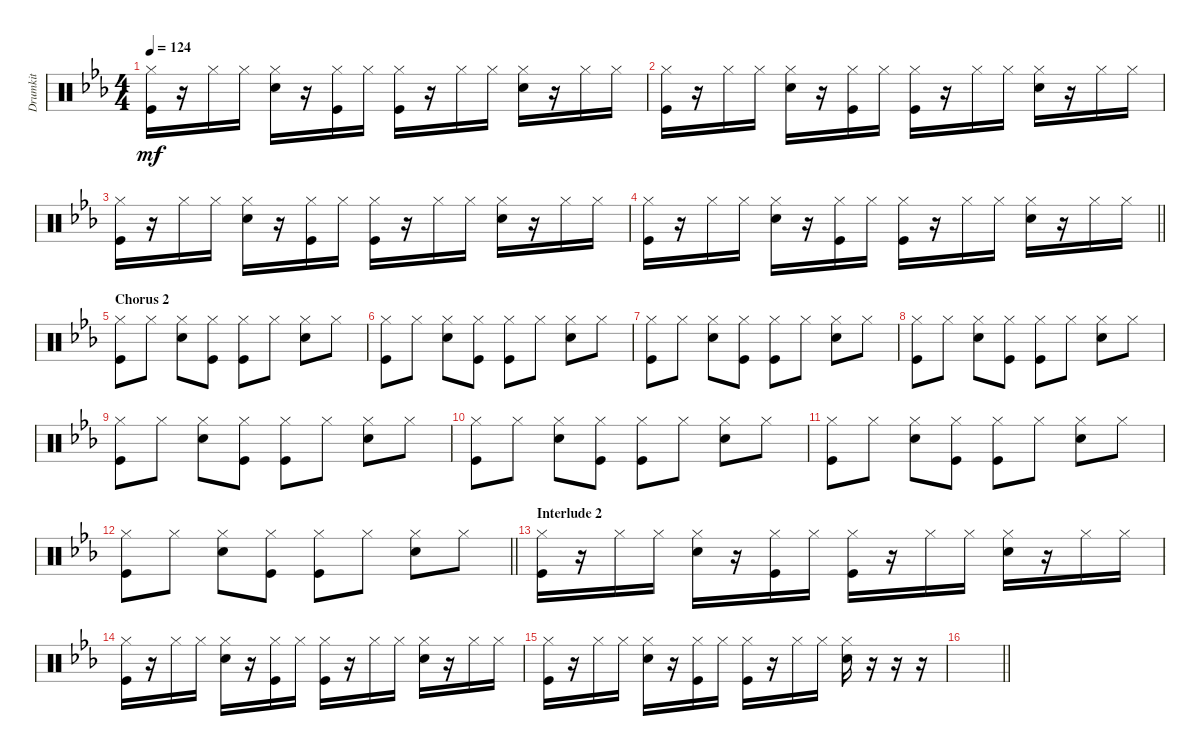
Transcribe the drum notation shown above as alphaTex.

\track ("Drumkit" "Drumkit") {instrument percussion}
\staff {score}
\articulation defaults
\ts (4 4)
\tempo 124
\clef neutral
\ks eb
("Hi-Hat (closed)" "Kick (hit)").16{dy mf} r.16 "Hi-Hat (closed)".16 "Hi-Hat (closed)".16 ("Hi-Hat (closed)" "Snare (hit) 2").16 r.16 ("Hi-Hat (closed)" "Kick (hit)").16 "Hi-Hat (closed)".16 ("Hi-Hat (closed)" "Kick (hit)").16 r.16 "Hi-Hat (closed)".16 "Hi-Hat (closed)".16 ("Hi-Hat (closed)" "Snare (hit) 2").16 r.16 "Hi-Hat (closed)".16 "Hi-Hat (closed)".16 |
("Hi-Hat (closed)" "Kick (hit)").16 r.16 "Hi-Hat (closed)".16 "Hi-Hat (closed)".16 ("Hi-Hat (closed)" "Snare (hit) 2").16 r.16 ("Hi-Hat (closed)" "Kick (hit)").16 "Hi-Hat (closed)".16 ("Hi-Hat (closed)" "Kick (hit)").16 r.16 "Hi-Hat (closed)".16 "Hi-Hat (closed)".16 ("Hi-Hat (closed)" "Snare (hit) 2").16 r.16 "Hi-Hat (closed)".16 "Hi-Hat (closed)".16 |
("Hi-Hat (closed)" "Kick (hit)").16 r.16 "Hi-Hat (closed)".16 "Hi-Hat (closed)".16 ("Hi-Hat (closed)" "Snare (hit) 2").16 r.16 ("Hi-Hat (closed)" "Kick (hit)").16 "Hi-Hat (closed)".16 ("Hi-Hat (closed)" "Kick (hit)").16 r.16 "Hi-Hat (closed)".16 "Hi-Hat (closed)".16 ("Hi-Hat (closed)" "Snare (hit) 2").16 r.16 "Hi-Hat (closed)".16 "Hi-Hat (closed)".16 |
\barLineRight lightlight
("Hi-Hat (closed)" "Kick (hit)").16 r.16 "Hi-Hat (closed)".16 "Hi-Hat (closed)".16 ("Hi-Hat (closed)" "Snare (hit) 2").16 r.16 ("Hi-Hat (closed)" "Kick (hit)").16 "Hi-Hat (closed)".16 ("Hi-Hat (closed)" "Kick (hit)").16 r.16 "Hi-Hat (closed)".16 "Hi-Hat (closed)".16 ("Hi-Hat (closed)" "Snare (hit) 2").16 r.16 "Hi-Hat (closed)".16 "Hi-Hat (closed)".16 |
\section ("" "Chorus 2")
("Hi-Hat (closed)" "Kick (hit)").8 "Hi-Hat (closed)".8 ("Hi-Hat (closed)" "Snare (hit) 2").8 ("Hi-Hat (closed)" "Kick (hit)").8 ("Hi-Hat (closed)" "Kick (hit)").8 "Hi-Hat (closed)".8 ("Hi-Hat (closed)" "Snare (hit) 2").8 "Hi-Hat (closed)".8 |
("Hi-Hat (closed)" "Kick (hit)").8 "Hi-Hat (closed)".8 ("Hi-Hat (closed)" "Snare (hit) 2").8 ("Hi-Hat (closed)" "Kick (hit)").8 ("Hi-Hat (closed)" "Kick (hit)").8 "Hi-Hat (closed)".8 ("Hi-Hat (closed)" "Snare (hit) 2").8 "Hi-Hat (closed)".8 |
("Hi-Hat (closed)" "Kick (hit)").8 "Hi-Hat (closed)".8 ("Hi-Hat (closed)" "Snare (hit) 2").8 ("Hi-Hat (closed)" "Kick (hit)").8 ("Hi-Hat (closed)" "Kick (hit)").8 "Hi-Hat (closed)".8 ("Hi-Hat (closed)" "Snare (hit) 2").8 "Hi-Hat (closed)".8 |
("Hi-Hat (closed)" "Kick (hit)").8 "Hi-Hat (closed)".8 ("Hi-Hat (closed)" "Snare (hit) 2").8 ("Hi-Hat (closed)" "Kick (hit)").8 ("Hi-Hat (closed)" "Kick (hit)").8 "Hi-Hat (closed)".8 ("Hi-Hat (closed)" "Snare (hit) 2").8 "Hi-Hat (closed)".8 |
("Hi-Hat (closed)" "Kick (hit)").8 "Hi-Hat (closed)".8 ("Hi-Hat (closed)" "Snare (hit) 2").8 ("Hi-Hat (closed)" "Kick (hit)").8 ("Hi-Hat (closed)" "Kick (hit)").8 "Hi-Hat (closed)".8 ("Hi-Hat (closed)" "Snare (hit) 2").8 "Hi-Hat (closed)".8 |
("Hi-Hat (closed)" "Kick (hit)").8 "Hi-Hat (closed)".8 ("Hi-Hat (closed)" "Snare (hit) 2").8 ("Hi-Hat (closed)" "Kick (hit)").8 ("Hi-Hat (closed)" "Kick (hit)").8 "Hi-Hat (closed)".8 ("Hi-Hat (closed)" "Snare (hit) 2").8 "Hi-Hat (closed)".8 |
("Hi-Hat (closed)" "Kick (hit)").8 "Hi-Hat (closed)".8 ("Hi-Hat (closed)" "Snare (hit) 2").8 ("Hi-Hat (closed)" "Kick (hit)").8 ("Hi-Hat (closed)" "Kick (hit)").8 "Hi-Hat (closed)".8 ("Hi-Hat (closed)" "Snare (hit) 2").8 "Hi-Hat (closed)".8 |
\barLineRight lightlight
("Hi-Hat (closed)" "Kick (hit)").8 "Hi-Hat (closed)".8 ("Hi-Hat (closed)" "Snare (hit) 2").8 ("Hi-Hat (closed)" "Kick (hit)").8 ("Hi-Hat (closed)" "Kick (hit)").8 "Hi-Hat (closed)".8 ("Hi-Hat (closed)" "Snare (hit) 2").8 "Hi-Hat (closed)".8 |
\section ("" "Interlude 2")
("Hi-Hat (closed)" "Kick (hit)").16 r.16 "Hi-Hat (closed)".16 "Hi-Hat (closed)".16 ("Hi-Hat (closed)" "Snare (hit) 2").16 r.16 ("Hi-Hat (closed)" "Kick (hit)").16 "Hi-Hat (closed)".16 ("Hi-Hat (closed)" "Kick (hit)").16 r.16 "Hi-Hat (closed)".16 "Hi-Hat (closed)".16 ("Hi-Hat (closed)" "Snare (hit) 2").16 r.16 "Hi-Hat (closed)".16 "Hi-Hat (closed)".16 |
("Hi-Hat (closed)" "Kick (hit)").16 r.16 "Hi-Hat (closed)".16 "Hi-Hat (closed)".16 ("Hi-Hat (closed)" "Snare (hit) 2").16 r.16 ("Hi-Hat (closed)" "Kick (hit)").16 "Hi-Hat (closed)".16 ("Hi-Hat (closed)" "Kick (hit)").16 r.16 "Hi-Hat (closed)".16 "Hi-Hat (closed)".16 ("Hi-Hat (closed)" "Snare (hit) 2").16 r.16 "Hi-Hat (closed)".16 "Hi-Hat (closed)".16 |
("Hi-Hat (closed)" "Kick (hit)").16 r.16 "Hi-Hat (closed)".16 "Hi-Hat (closed)".16 ("Hi-Hat (closed)" "Snare (hit) 2").16 r.16 ("Hi-Hat (closed)" "Kick (hit)").16 "Hi-Hat (closed)".16 ("Hi-Hat (closed)" "Kick (hit)").16 r.16 "Hi-Hat (closed)".16 "Hi-Hat (closed)".16 ("Hi-Hat (closed)" "Snare (hit) 2").16 r.16 r.16 r.16 |
\barLineRight lightlight
